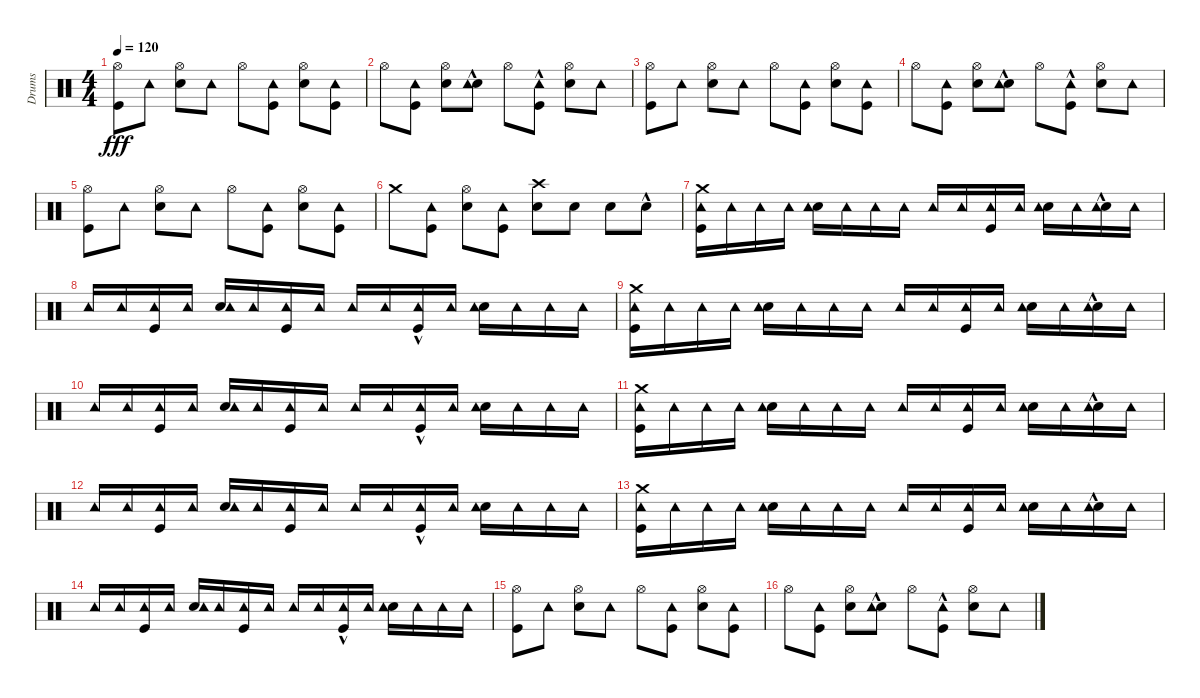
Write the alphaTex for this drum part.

\track ("Drums" "Drums") {instrument percussion}
\staff {score}
\articulation defaults
\ts (4 4)
\tempo 120
\clef neutral
\ks c
("Kick (hit)" "Hi-Hat (open)").8{dy fff} "Tambourine (hit)".8 ("Snare (hit) 2" "Hi-Hat (open)").8 "Tambourine (hit)".8 "Hi-Hat (open)".8 ("Kick (hit)" "Tambourine (hit)").8 ("Snare (hit) 2" "Hi-Hat (open)").8 ("Kick (hit)" "Tambourine (hit)").8 |
"Hi-Hat (open)".8 ("Kick (hit)" "Tambourine (hit)").8 ("Snare (hit) 2" "Hi-Hat (open)").8 ("Snare (hit) 2"{hac} "Tambourine (hit)").8 "Hi-Hat (open)".8 ("Kick (hit)"{hac} "Tambourine (hit)").8 ("Snare (hit) 2" "Hi-Hat (open)").8 "Tambourine (hit)".8 |
("Kick (hit)" "Hi-Hat (open)").8 "Tambourine (hit)".8 ("Snare (hit) 2" "Hi-Hat (open)").8 "Tambourine (hit)".8 "Hi-Hat (open)".8 ("Kick (hit)" "Tambourine (hit)").8 ("Snare (hit) 2" "Hi-Hat (open)").8 ("Kick (hit)" "Tambourine (hit)").8 |
"Hi-Hat (open)".8 ("Kick (hit)" "Tambourine (hit)").8 ("Snare (hit) 2" "Hi-Hat (open)").8 ("Snare (hit) 2"{hac} "Tambourine (hit)").8 "Hi-Hat (open)".8 ("Kick (hit)"{hac} "Tambourine (hit)").8 ("Snare (hit) 2" "Hi-Hat (open)").8 "Tambourine (hit)".8 |
("Kick (hit)" "Hi-Hat (open)").8 "Tambourine (hit)".8 ("Snare (hit) 2" "Hi-Hat (open)").8 "Tambourine (hit)".8 "Hi-Hat (open)".8 ("Kick (hit)" "Tambourine (hit)").8 ("Snare (hit) 2" "Hi-Hat (open)").8 ("Kick (hit)" "Tambourine (hit)").8 |
"Crash medium (hit)".8 ("Kick (hit)" "Tambourine (hit)").8 ("Snare (hit) 2" "Hi-Hat (open)").8 ("Kick (hit)" "Tambourine (hit)").8 ("Snare (hit) 2" "Crash high (hit)").8 "Snare (hit) 2".8 "Snare (hit) 2".8 "Snare (hit) 2"{hac}.8 |
("Kick (hit)" "Tambourine (hit)" "Crash medium (hit)").16 "Tambourine (hit)".16 "Tambourine (hit)".16 "Tambourine (hit)".16 ("Snare (hit) 2" "Tambourine (hit)").16 "Tambourine (hit)".16 "Tambourine (hit)".16 "Tambourine (hit)".16 "Tambourine (hit)".16 "Tambourine (hit)".16 ("Kick (hit)" "Tambourine (hit)").16 "Tambourine (hit)".16 ("Snare (hit) 2" "Tambourine (hit)").16 "Tambourine (hit)".16 ("Snare (hit) 2"{hac} "Tambourine (hit)").16 "Tambourine (hit)".16 |
"Tambourine (hit)".16 "Tambourine (hit)".16 ("Kick (hit)" "Tambourine (hit)").16 "Tambourine (hit)".16 ("Snare (hit) 2" "Tambourine (hit)").16 "Tambourine (hit)".16 ("Kick (hit)" "Tambourine (hit)").16 "Tambourine (hit)".16 "Tambourine (hit)".16 "Tambourine (hit)".16 ("Kick (hit)"{hac} "Tambourine (hit)").16 "Tambourine (hit)".16 ("Snare (hit) 2" "Tambourine (hit)").16 "Tambourine (hit)".16 "Tambourine (hit)".16 "Tambourine (hit)".16 |
("Kick (hit)" "Tambourine (hit)" "Crash medium (hit)").16 "Tambourine (hit)".16 "Tambourine (hit)".16 "Tambourine (hit)".16 ("Snare (hit) 2" "Tambourine (hit)").16 "Tambourine (hit)".16 "Tambourine (hit)".16 "Tambourine (hit)".16 "Tambourine (hit)".16 "Tambourine (hit)".16 ("Kick (hit)" "Tambourine (hit)").16 "Tambourine (hit)".16 ("Snare (hit) 2" "Tambourine (hit)").16 "Tambourine (hit)".16 ("Snare (hit) 2"{hac} "Tambourine (hit)").16 "Tambourine (hit)".16 |
"Tambourine (hit)".16 "Tambourine (hit)".16 ("Kick (hit)" "Tambourine (hit)").16 "Tambourine (hit)".16 ("Snare (hit) 2" "Tambourine (hit)").16 "Tambourine (hit)".16 ("Kick (hit)" "Tambourine (hit)").16 "Tambourine (hit)".16 "Tambourine (hit)".16 "Tambourine (hit)".16 ("Kick (hit)"{hac} "Tambourine (hit)").16 "Tambourine (hit)".16 ("Snare (hit) 2" "Tambourine (hit)").16 "Tambourine (hit)".16 "Tambourine (hit)".16 "Tambourine (hit)".16 |
("Kick (hit)" "Tambourine (hit)" "Crash medium (hit)").16 "Tambourine (hit)".16 "Tambourine (hit)".16 "Tambourine (hit)".16 ("Snare (hit) 2" "Tambourine (hit)").16 "Tambourine (hit)".16 "Tambourine (hit)".16 "Tambourine (hit)".16 "Tambourine (hit)".16 "Tambourine (hit)".16 ("Kick (hit)" "Tambourine (hit)").16 "Tambourine (hit)".16 ("Snare (hit) 2" "Tambourine (hit)").16 "Tambourine (hit)".16 ("Snare (hit) 2"{hac} "Tambourine (hit)").16 "Tambourine (hit)".16 |
"Tambourine (hit)".16 "Tambourine (hit)".16 ("Kick (hit)" "Tambourine (hit)").16 "Tambourine (hit)".16 ("Snare (hit) 2" "Tambourine (hit)").16 "Tambourine (hit)".16 ("Kick (hit)" "Tambourine (hit)").16 "Tambourine (hit)".16 "Tambourine (hit)".16 "Tambourine (hit)".16 ("Kick (hit)"{hac} "Tambourine (hit)").16 "Tambourine (hit)".16 ("Snare (hit) 2" "Tambourine (hit)").16 "Tambourine (hit)".16 "Tambourine (hit)".16 "Tambourine (hit)".16 |
("Kick (hit)" "Tambourine (hit)" "Crash medium (hit)").16 "Tambourine (hit)".16 "Tambourine (hit)".16 "Tambourine (hit)".16 ("Snare (hit) 2" "Tambourine (hit)").16 "Tambourine (hit)".16 "Tambourine (hit)".16 "Tambourine (hit)".16 "Tambourine (hit)".16 "Tambourine (hit)".16 ("Kick (hit)" "Tambourine (hit)").16 "Tambourine (hit)".16 ("Snare (hit) 2" "Tambourine (hit)").16 "Tambourine (hit)".16 ("Snare (hit) 2"{hac} "Tambourine (hit)").16 "Tambourine (hit)".16 |
"Tambourine (hit)".16 "Tambourine (hit)".16 ("Kick (hit)" "Tambourine (hit)").16 "Tambourine (hit)".16 ("Snare (hit) 2" "Tambourine (hit)").16 "Tambourine (hit)".16 ("Kick (hit)" "Tambourine (hit)").16 "Tambourine (hit)".16 "Tambourine (hit)".16 "Tambourine (hit)".16 ("Kick (hit)"{hac} "Tambourine (hit)").16 "Tambourine (hit)".16 ("Snare (hit) 2" "Tambourine (hit)").16 "Tambourine (hit)".16 "Tambourine (hit)".16 "Tambourine (hit)".16 |
("Kick (hit)" "Hi-Hat (open)").8 "Tambourine (hit)".8 ("Snare (hit) 2" "Hi-Hat (open)").8 "Tambourine (hit)".8 "Hi-Hat (open)".8 ("Kick (hit)" "Tambourine (hit)").8 ("Snare (hit) 2" "Hi-Hat (open)").8 ("Kick (hit)" "Tambourine (hit)").8 |
"Hi-Hat (open)".8 ("Kick (hit)" "Tambourine (hit)").8 ("Snare (hit) 2" "Hi-Hat (open)").8 ("Snare (hit) 2"{hac} "Tambourine (hit)").8 "Hi-Hat (open)".8 ("Kick (hit)"{hac} "Tambourine (hit)").8 ("Snare (hit) 2" "Hi-Hat (open)").8 "Tambourine (hit)".8
